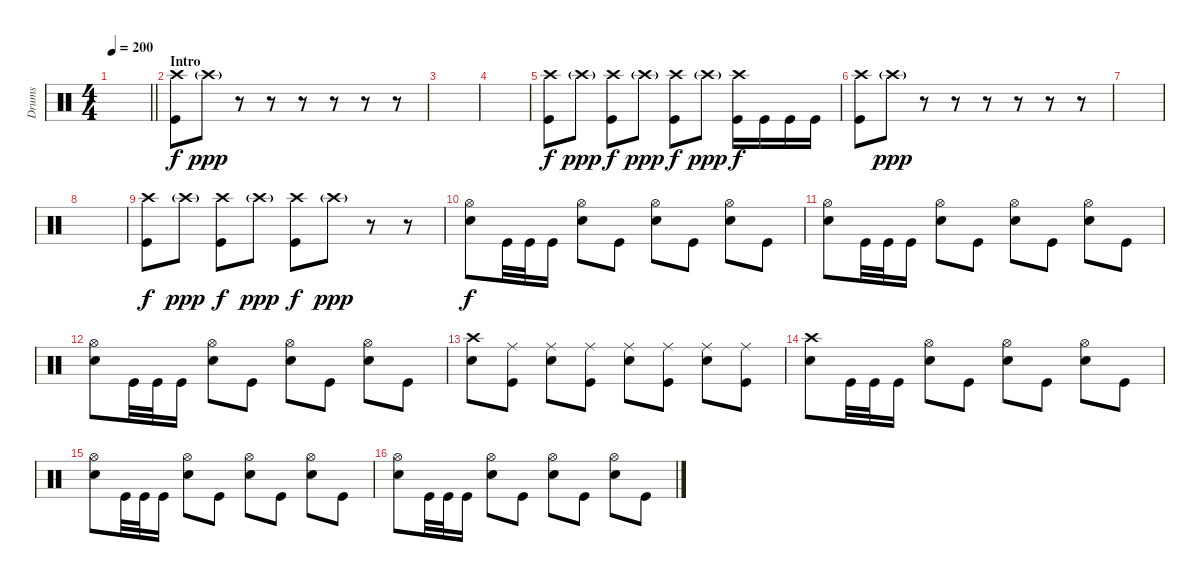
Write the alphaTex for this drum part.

\track ("Drums" "Drums") {instrument percussion}
\staff {score}
\articulation defaults
\ts (4 4)
\tempo 200
\clef neutral
\barLineRight lightlight
\ks c
|
\section ("" "Intro")
("Crash high (hit)" "Kick (hit)").8 "Crash high (hit)"{g}.8{dy ppp} r.8 r.8 r.8 r.8 r.8 r.8 |
|
|
("Crash high (hit)" "Kick (hit)").8{dy f} "Crash high (hit)"{g}.8{dy ppp} ("Crash high (hit)" "Kick (hit)").8{dy f} "Crash high (hit)"{g}.8{dy ppp} ("Crash high (hit)" "Kick (hit)").8{dy f} "Crash high (hit)"{g}.8{dy ppp} ("Crash high (hit)" "Kick (hit)").16{dy f} "Kick (hit)".16 "Kick (hit)".16 "Kick (hit)".16 |
("Crash high (hit)" "Kick (hit)").8 "Crash high (hit)"{g}.8{dy ppp} r.8 r.8 r.8 r.8 r.8 r.8 |
|
|
("Crash high (hit)" "Kick (hit)").8{dy f} "Crash high (hit)"{g}.8{dy ppp} ("Crash high (hit)" "Kick (hit)").8{dy f} "Crash high (hit)"{g}.8{dy ppp} ("Crash high (hit)" "Kick (hit)").8{dy f} "Crash high (hit)"{g}.8{dy ppp} r.8 r.8 |
("Hi-Hat (open)" "Snare (hit) 2").8{dy f} "Kick (hit)".32 "Kick (hit)".32 "Kick (hit)".16 ("Hi-Hat (open)" "Snare (hit) 2").8 "Kick (hit)".8 ("Hi-Hat (open)" "Snare (hit) 2").8 "Kick (hit)".8 ("Hi-Hat (open)" "Snare (hit) 2").8 "Kick (hit)".8 |
("Hi-Hat (open)" "Snare (hit) 2").8 "Kick (hit)".32 "Kick (hit)".32 "Kick (hit)".16 ("Hi-Hat (open)" "Snare (hit) 2").8 "Kick (hit)".8 ("Hi-Hat (open)" "Snare (hit) 2").8 "Kick (hit)".8 ("Hi-Hat (open)" "Snare (hit) 2").8 "Kick (hit)".8 |
("Hi-Hat (open)" "Snare (hit) 2").8 "Kick (hit)".32 "Kick (hit)".32 "Kick (hit)".16 ("Hi-Hat (open)" "Snare (hit) 2").8 "Kick (hit)".8 ("Hi-Hat (open)" "Snare (hit) 2").8 "Kick (hit)".8 ("Hi-Hat (open)" "Snare (hit) 2").8 "Kick (hit)".8 |
("Crash high (hit)" "Snare (hit) 2").8 ("Ride (middle)" "Kick (hit)").8 ("Ride (middle)" "Snare (hit) 2").8 ("Ride (middle)" "Kick (hit)").8 ("Ride (middle)" "Snare (hit) 2").8 ("Ride (middle)" "Kick (hit)").8 ("Ride (middle)" "Snare (hit) 2").8 ("Ride (middle)" "Kick (hit)").8 |
("Crash high (hit)" "Snare (hit) 2").8 "Kick (hit)".32 "Kick (hit)".32 "Kick (hit)".16 ("Hi-Hat (open)" "Snare (hit) 2").8 "Kick (hit)".8 ("Hi-Hat (open)" "Snare (hit) 2").8 "Kick (hit)".8 ("Hi-Hat (open)" "Snare (hit) 2").8 "Kick (hit)".8 |
("Hi-Hat (open)" "Snare (hit) 2").8 "Kick (hit)".32 "Kick (hit)".32 "Kick (hit)".16 ("Hi-Hat (open)" "Snare (hit) 2").8 "Kick (hit)".8 ("Hi-Hat (open)" "Snare (hit) 2").8 "Kick (hit)".8 ("Hi-Hat (open)" "Snare (hit) 2").8 "Kick (hit)".8 |
("Hi-Hat (open)" "Snare (hit) 2").8 "Kick (hit)".32 "Kick (hit)".32 "Kick (hit)".16 ("Hi-Hat (open)" "Snare (hit) 2").8 "Kick (hit)".8 ("Hi-Hat (open)" "Snare (hit) 2").8 "Kick (hit)".8 ("Hi-Hat (open)" "Snare (hit) 2").8 "Kick (hit)".8
